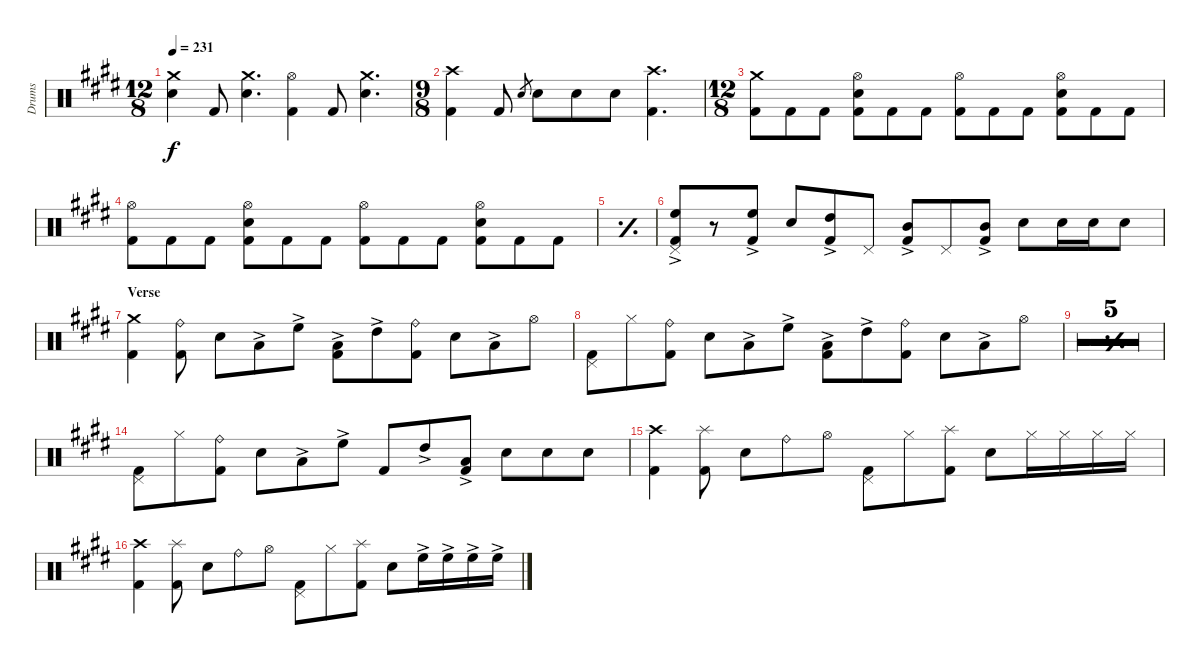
\defaultSystemsLayout 4
\bracketExtendMode groupsimilarinstruments
\otherSystemsTrackNameOrientation horizontal
\track ("Drumkit" "Drums") {multiBarRest instrument percussion}
\staff {score}
\articulation defaults
\ts (12 8)
\tempo 231
\clef neutral
\ks e
("Snare (hit) 2"{acc forcenatural} "Crash medium (hit)"{acc forcenatural}).4{dy f} "Kick (hit) 2"{acc forcenatural}.8 ("Snare (hit) 2"{acc forcenatural} "Crash medium (hit)"{acc forcenatural}).4{d} ("Hi-Hat (open)"{acc forcenatural} "Kick (hit) 2"{acc forcenatural}).4 "Kick (hit) 2"{acc forcenatural}.8 ("Snare (hit) 2"{acc forcenatural} "Crash medium (hit)"{acc forcenatural}).4{d} |
\ts (9 8)
("Crash high (hit)"{acc forcenatural} "Kick (hit) 2"{acc forcenatural}).4 "Kick (hit) 2"{acc forcenatural}.8 "Snare (hit) 2"{acc forcenatural}.8{gr} "Snare (hit) 2"{acc forcenatural}.8 "Snare (hit) 2"{acc forcenatural}.8 "Snare (hit) 2"{acc forcenatural}.8 ("Crash high (hit)"{acc forcenatural} "Kick (hit) 2"{acc forcenatural}).4{d} |
\ts (12 8)
("Crash medium (hit)"{acc forcenatural} "Kick (hit) 2"{acc forcenatural}).8 "Kick (hit) 2"{acc forcenatural}.8 "Kick (hit) 2"{acc forcenatural}.8 ("Snare (hit) 2"{acc forcenatural} "Kick (hit) 2"{acc forcenatural} "Hi-Hat (open)"{acc forcenatural}).8 "Kick (hit) 2"{acc forcenatural}.8 "Kick (hit) 2"{acc forcenatural}.8 ("Hi-Hat (open)"{acc forcenatural} "Kick (hit) 2"{acc forcenatural}).8 "Kick (hit) 2"{acc forcenatural}.8 "Kick (hit) 2"{acc forcenatural}.8 ("Snare (hit) 2"{acc forcenatural} "Kick (hit) 2"{acc forcenatural} "Hi-Hat (open)"{acc forcenatural}).8 "Kick (hit) 2"{acc forcenatural}.8 "Kick (hit) 2"{acc forcenatural}.8 |
("Hi-Hat (open)"{acc forcenatural} "Kick (hit) 2"{acc forcenatural}).8 "Kick (hit) 2"{acc forcenatural}.8 "Kick (hit) 2"{acc forcenatural}.8 ("Snare (hit) 2"{acc forcenatural} "Kick (hit) 2"{acc forcenatural} "Hi-Hat (open)"{acc forcenatural}).8 "Kick (hit) 2"{acc forcenatural}.8 "Kick (hit) 2"{acc forcenatural}.8 ("Hi-Hat (open)"{acc forcenatural} "Kick (hit) 2"{acc forcenatural}).8 "Kick (hit) 2"{acc forcenatural}.8 "Kick (hit) 2"{acc forcenatural}.8 ("Snare (hit) 2"{acc forcenatural} "Kick (hit) 2"{acc forcenatural} "Hi-Hat (open)"{acc forcenatural}).8 "Kick (hit) 2"{acc forcenatural}.8 "Kick (hit) 2"{acc forcenatural}.8 |
\simile simple
|
\simile none
("High Floor Tom (hit)"{ac acc forcenatural} "Kick (hit) 2"{acc forcenatural} "Pedal Hi-Hat (hit)"{acc forcenatural}).8 r.8 ("High Floor Tom (hit)"{ac acc forcenatural} "Kick (hit) 2"{acc forcenatural}).8 "Snare (hit) 2"{acc forcenatural}.8 ("High Tom (hit)"{ac acc forcenatural} "Kick (hit) 2"{acc forcenatural}).8 "Pedal Hi-Hat (hit)"{acc forcenatural}.8 ("Kick (hit) 2"{acc forcenatural} "Mid Tom (hit)"{ac acc forcenatural}).8 "Pedal Hi-Hat (hit)"{acc forcenatural}.8 ("Kick (hit) 2"{acc forcenatural} "Mid Tom (hit)"{ac acc forcenatural}).8 "Snare (hit) 2"{acc forcenatural}.8 "Snare (hit) 2"{acc forcenatural}.16 "Snare (hit) 2"{acc forcenatural}.16 "Snare (hit) 2"{acc forcenatural}.8 |
\section ("" "Verse")
("Kick (hit) 2"{acc forcenatural} "Crash medium (hit)"{acc forcenatural}).4 ("Kick (hit) 2"{acc forcenatural} "Ride (bell)"{acc forcenatural}).8 "Snare (hit) 2"{acc forcenatural}.8 "Low Tom (hit)"{ac acc forcenatural}.8 "High Floor Tom (hit)"{ac acc forcenatural}.8 ("Kick (hit) 2"{acc forcenatural} "Low Tom (hit)"{ac acc forcenatural}).8 "High Tom (hit)"{ac acc forcenatural}.8 ("Ride (bell)"{acc forcenatural} "Kick (hit) 2"{acc forcenatural}).8 "Snare (hit) 2"{acc forcenatural}.8 "Low Tom (hit)"{ac acc forcenatural}.8 "Hi-Hat (open)"{acc forcenatural}.8 |
("Kick (hit) 2"{acc forcenatural} "Pedal Hi-Hat (hit)"{acc forcenatural}).8 "Hi-Hat (closed)"{acc forcenatural}.8 ("Kick (hit) 2"{acc forcenatural} "Ride (bell)"{acc forcenatural}).8 "Snare (hit) 2"{acc forcenatural}.8 "Low Tom (hit)"{ac acc forcenatural}.8 "High Floor Tom (hit)"{ac acc forcenatural}.8 ("Low Tom (hit)"{ac acc forcenatural} "Kick (hit) 2"{acc forcenatural}).8 "High Tom (hit)"{ac acc forcenatural}.8 ("Kick (hit) 2"{acc forcenatural} "Ride (bell)"{acc forcenatural}).8 "Snare (hit) 2"{acc forcenatural}.8 "Low Tom (hit)"{ac acc forcenatural}.8 "Hi-Hat (open)"{acc forcenatural}.8 |
\simile simple
|
|
|
|
|
\simile none
("Kick (hit) 2"{acc forcenatural} "Pedal Hi-Hat (hit)"{acc forcenatural}).8 "Hi-Hat (closed)"{acc forcenatural}.8 ("Kick (hit) 2"{acc forcenatural} "Ride (bell)"{acc forcenatural}).8 "Snare (hit) 2"{acc forcenatural}.8 "Low Tom (hit)"{ac acc forcenatural}.8 "High Floor Tom (hit)"{ac acc forcenatural}.8 "Kick (hit) 2"{acc forcenatural}.8 "High Tom (hit)"{ac acc forcenatural}.8 ("Kick (hit) 2"{acc forcenatural} "Low Tom (hit)"{ac acc forcenatural}).8 "Snare (hit) 2"{acc forcenatural}.8 "Snare (hit) 2"{acc forcenatural}.8 "Snare (hit) 2"{acc forcenatural}.8 |
("Kick (hit) 2"{acc forcenatural} "Crash high (hit)"{acc forcenatural}).4 ("Kick (hit) 2"{acc forcenatural} "Splash (hit)"{acc forcenatural}).8 "Snare (hit) 2"{acc forcenatural}.8 "Ride (bell)"{acc forcenatural}.8 "Hi-Hat (open)"{acc forcenatural}.8 ("Pedal Hi-Hat (hit)"{acc forcenatural} "Kick (hit) 2"{acc forcenatural}).8 "Hi-Hat (closed)"{acc forcenatural}.8 ("Splash (hit)"{acc forcenatural} "Kick (hit) 2"{acc forcenatural}).8 "Snare (hit) 2"{acc forcenatural}.8 "Hi-Hat (closed)"{acc forcenatural}.16 "Hi-Hat (closed)"{acc forcenatural}.16 "Hi-Hat (closed)"{acc forcenatural}.16 "Hi-Hat (closed)"{acc forcenatural}.16 |
("Kick (hit) 2"{acc forcenatural} "Crash high (hit)"{acc forcenatural}).4 ("Kick (hit) 2"{acc forcenatural} "Splash (hit)"{acc forcenatural}).8 "Snare (hit) 2"{acc forcenatural}.8 "Ride (bell)"{acc forcenatural}.8 "Hi-Hat (open)"{acc forcenatural}.8 ("Pedal Hi-Hat (hit)"{acc forcenatural} "Kick (hit) 2"{acc forcenatural}).8 "Hi-Hat (closed)"{acc forcenatural}.8 ("Splash (hit)"{acc forcenatural} "Kick (hit) 2"{acc forcenatural}).8 "Snare (hit) 2"{acc forcenatural}.8 "High Floor Tom (hit)"{ac acc forcenatural}.16 "High Floor Tom (hit)"{ac acc forcenatural}.16 "High Floor Tom (hit)"{ac acc forcenatural}.16 "High Floor Tom (hit)"{ac acc forcenatural}.16
